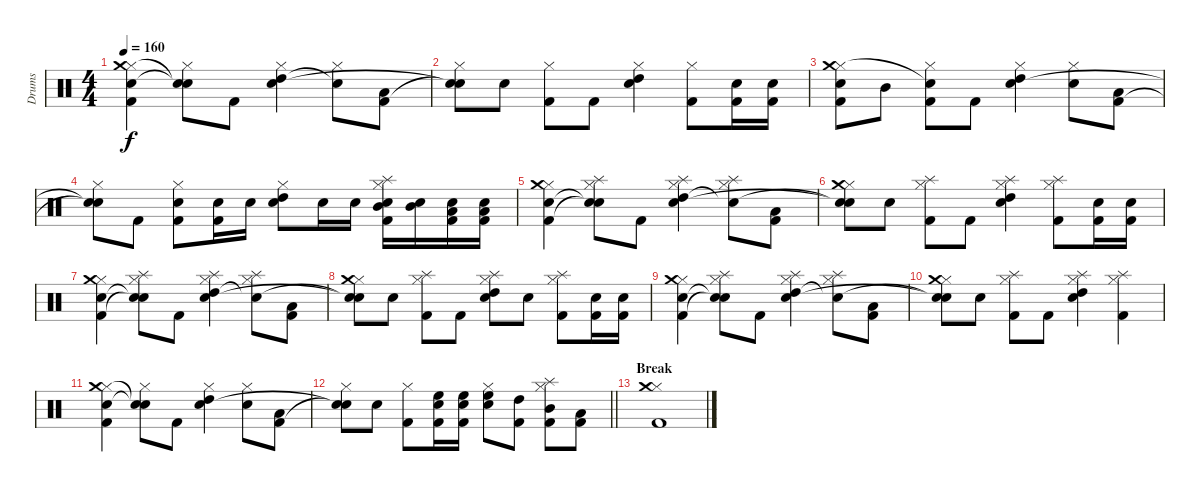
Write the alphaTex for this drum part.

\track ("Drums" "Drums") {instrument percussion}
\staff {score}
\articulation defaults
\ts (4 4)
\tempo 160
\clef neutral
\ks c
("Hi-Hat (closed)" "Crash medium (hit)" "Snare (hit) 2" "Kick (hit) 2").4{dy f} ("Hi-Hat (closed)" "Snare (hit)"{t} "Snare (hit)"{t}).8 "Kick (hit) 2".8 ("Hi-Hat (closed)" "High Tom (hit)" "Snare (hit) 2").4 ("Hi-Hat (closed)" "Snare (hit)"{t}).8 ("Low Floor Tom (hit)" "Kick (hit) 2").8 |
("Hi-Hat (closed)" "Snare (hit)"{t} "Snare (hit)"{t}).8 "Snare (hit) 2".8 ("Hi-Hat (closed)" "Kick (hit) 2").8 "Kick (hit) 2".8 ("Hi-Hat (closed)" "High Tom (hit)" "Snare (hit) 2").4 ("Hi-Hat (closed)" "Kick (hit) 2").8 ("Snare (hit) 2" "Kick (hit) 2").16 ("Snare (hit) 2" "Kick (hit) 2").16 |
("Hi-Hat (closed)" "Crash medium (hit)" "Snare (hit) 2" "Kick (hit) 2").8 "Mid Tom (hit)".8 ("Hi-Hat (closed)" "Snare (hit)"{t} "Kick (hit) 2").8 "Kick (hit) 2".8 ("Hi-Hat (closed)" "High Tom (hit)" "Snare (hit) 2").4 ("Hi-Hat (closed)" "Snare (hit) 2").8 ("Low Floor Tom (hit)" "Kick (hit) 2").8 |
("Hi-Hat (closed)" "Snare (hit)"{t} "Snare (hit)"{t}).8 "Kick (hit) 2".8 ("Hi-Hat (closed)" "Snare (hit) 2" "Kick (hit) 2").8 ("Electric Snare (hit)" "Kick (hit) 2").16 "Electric Snare (hit)".16 ("Hi-Hat (closed)" "High Tom (hit)" "Electric Snare (hit)").8 "Snare (hit) 2".16 "Snare (hit) 2".16 ("Hi-Hat (closed)" "Splash (hit)" "Mid Tom (hit)" "Electric Snare (hit)" "Kick (hit) 2").16 ("Mid Tom (hit)" "Electric Snare (hit)").16 ("Low Tom (hit)" "Electric Snare (hit)" "Kick (hit) 2").16 ("Low Tom (hit)" "Electric Snare (hit)" "Kick (hit) 2").16 |
("Hi-Hat (closed)" "Crash medium (hit)" "Snare (hit) 2" "Kick (hit) 2").4 ("Hi-Hat (closed)" "Splash (hit)" "Snare (hit)"{t} "Snare (hit)"{t}).8 "Kick (hit) 2".8 ("Hi-Hat (closed)" "Splash (hit)" "High Tom (hit)" "Snare (hit) 2").4 ("Hi-Hat (closed)" "Splash (hit)" "Snare (hit)"{t}).8 ("Low Floor Tom (hit)" "Kick (hit) 2").8 |
("Hi-Hat (closed)" "Crash medium (hit)" "Snare (hit)"{t} "Snare (hit)"{t}).8 "Snare (hit) 2".8 ("Hi-Hat (closed)" "Splash (hit)" "Kick (hit) 2").8 "Kick (hit) 2".8 ("Hi-Hat (closed)" "Splash (hit)" "High Tom (hit)" "Snare (hit) 2").4 ("Hi-Hat (closed)" "Splash (hit)" "Kick (hit) 2").8 ("Snare (hit) 2" "Kick (hit) 2").16 ("Snare (hit) 2" "Kick (hit) 2").16 |
("Hi-Hat (closed)" "Crash medium (hit)" "Snare (hit) 2" "Kick (hit) 2").4 ("Hi-Hat (closed)" "Splash (hit)" "Snare (hit)"{t} "Snare (hit)"{t}).8 "Kick (hit) 2".8 ("Hi-Hat (closed)" "Splash (hit)" "High Tom (hit)" "Snare (hit) 2").4 ("Hi-Hat (closed)" "Splash (hit)" "Snare (hit)"{t}).8 ("Low Floor Tom (hit)" "Kick (hit) 2").8 |
("Hi-Hat (closed)" "Crash medium (hit)" "Snare (hit)"{t} "Snare (hit)"{t}).8 "Snare (hit) 2".8 ("Hi-Hat (closed)" "Splash (hit)" "Kick (hit) 2").8 "Kick (hit) 2".8 ("Hi-Hat (closed)" "Splash (hit)" "High Tom (hit)" "Snare (hit) 2").8 "Snare (hit) 2".8 ("Hi-Hat (closed)" "Splash (hit)" "Kick (hit) 2").8 ("Snare (hit) 2" "Kick (hit) 2").16 ("Snare (hit) 2" "Kick (hit) 2").16 |
("Hi-Hat (closed)" "Crash medium (hit)" "Snare (hit) 2" "Kick (hit) 2").4 ("Hi-Hat (closed)" "Splash (hit)" "Snare (hit)"{t} "Snare (hit)"{t}).8 "Kick (hit) 2".8 ("Hi-Hat (closed)" "Splash (hit)" "High Tom (hit)" "Snare (hit) 2").4 ("Hi-Hat (closed)" "Splash (hit)" "Snare (hit)"{t}).8 ("Low Floor Tom (hit)" "Kick (hit) 2").8 |
("Hi-Hat (closed)" "Crash medium (hit)" "Snare (hit)"{t} "Snare (hit)"{t}).8 "Snare (hit) 2".8 ("Hi-Hat (closed)" "Splash (hit)" "Kick (hit) 2").8 "Kick (hit) 2".8 ("Hi-Hat (closed)" "Splash (hit)" "High Tom (hit)" "Snare (hit) 2").4 ("Hi-Hat (closed)" "Splash (hit)" "Kick (hit) 2").4 |
("Hi-Hat (closed)" "Crash medium (hit)" "Snare (hit) 2" "Kick (hit) 2").4 ("Hi-Hat (closed)" "Snare (hit)"{t} "Snare (hit)"{t}).8 "Kick (hit) 2".8 ("Hi-Hat (closed)" "High Tom (hit)" "Snare (hit) 2").4 ("Hi-Hat (closed)" "Snare (hit) 2").8 ("Low Floor Tom (hit)" "Kick (hit) 2").8 |
\barLineRight lightlight
("Hi-Hat (closed)" "Snare (hit)"{t} "Snare (hit)"{t}).8 "Snare (hit) 2".8 ("Hi-Hat (closed)" "Kick (hit) 2").8 ("High Floor Tom (hit)" "Snare (hit) 2" "Kick (hit) 2").16 ("High Floor Tom (hit)" "Snare (hit) 2" "Kick (hit) 2").16 ("Hi-Hat (closed)" "High Floor Tom (hit)" "Snare (hit) 2").8 ("High Tom (hit)" "Kick (hit) 2").8 ("Hi-Hat (closed)" "Splash (hit)" "Mid Tom (hit)" "Kick (hit) 2").8 ("Low Tom (hit)" "Kick (hit) 2").8 |
\section ("" "Break")
("Hi-Hat (closed)" "Crash medium (hit)" "Kick (hit) 2").1
